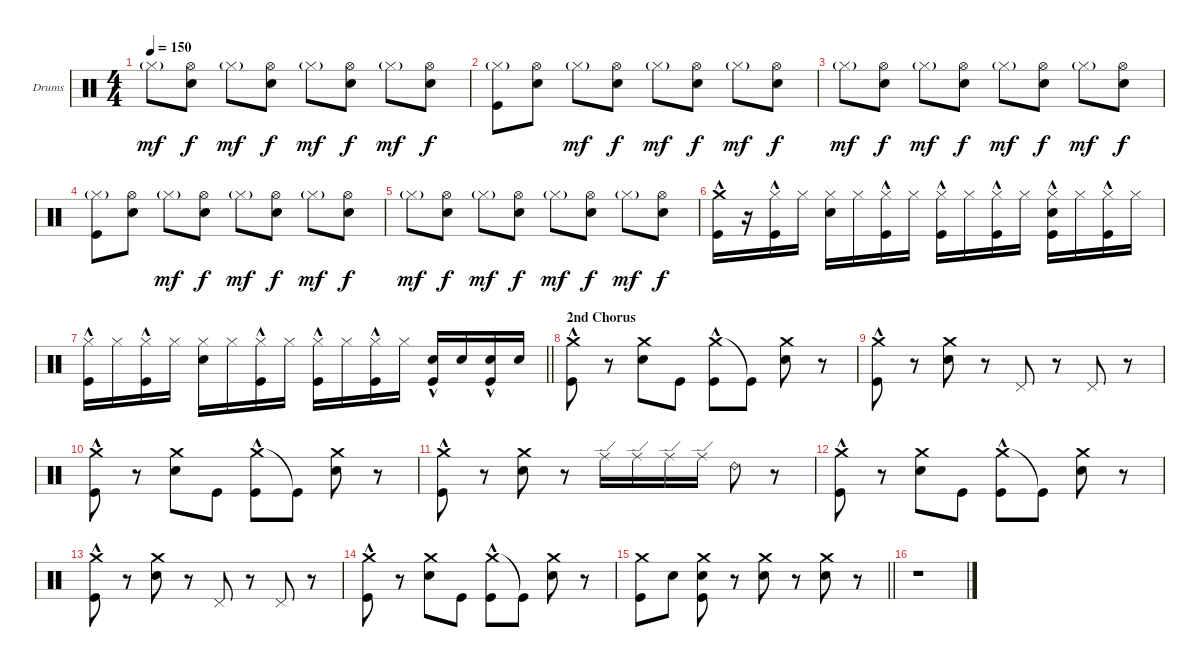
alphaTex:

\bracketExtendMode groupsimilarinstruments
\firstSystemTrackNameOrientation horizontal
\otherSystemsTrackNameOrientation horizontal
\track ("Drumkit" "Drums") {instrument percussion}
\staff {score}
\articulation defaults
\ts (4 4)
\tempo 150
\clef neutral
\ks c "Hi-Hat (closed)"{g}.8{dy mf}
("Hi-Hat (open)" "Snare (hit) 2").8{dy f} "Hi-Hat (closed)"{g}.8{dy mf} ("Hi-Hat (open)" "Snare (hit) 2").8{dy f} "Hi-Hat (closed)"{g}.8{dy mf} ("Hi-Hat (open)" "Snare (hit) 2").8{dy f} "Hi-Hat (closed)"{g}.8{dy mf} ("Hi-Hat (open)" "Snare (hit) 2").8{dy f} |
("Hi-Hat (closed)"{g} "Kick (hit)").8 ("Hi-Hat (open)" "Snare (hit) 2").8 "Hi-Hat (closed)"{g}.8{dy mf} ("Hi-Hat (open)" "Snare (hit) 2").8{dy f} "Hi-Hat (closed)"{g}.8{dy mf} ("Hi-Hat (open)" "Snare (hit) 2").8{dy f} "Hi-Hat (closed)"{g}.8{dy mf} ("Hi-Hat (open)" "Snare (hit) 2").8{dy f} |
"Hi-Hat (closed)"{g}.8{dy mf} ("Hi-Hat (open)" "Snare (hit) 2").8{dy f} "Hi-Hat (closed)"{g}.8{dy mf} ("Hi-Hat (open)" "Snare (hit) 2").8{dy f} "Hi-Hat (closed)"{g}.8{dy mf} ("Hi-Hat (open)" "Snare (hit) 2").8{dy f} "Hi-Hat (closed)"{g}.8{dy mf} ("Hi-Hat (open)" "Snare (hit) 2").8{dy f} |
("Hi-Hat (closed)"{g} "Kick (hit)").8 ("Hi-Hat (open)" "Snare (hit) 2").8 "Hi-Hat (closed)"{g}.8{dy mf} ("Hi-Hat (open)" "Snare (hit) 2").8{dy f} "Hi-Hat (closed)"{g}.8{dy mf} ("Hi-Hat (open)" "Snare (hit) 2").8{dy f} "Hi-Hat (closed)"{g}.8{dy mf} ("Hi-Hat (open)" "Snare (hit) 2").8{dy f} |
"Hi-Hat (closed)"{g}.8{dy mf} ("Hi-Hat (open)" "Snare (hit) 2").8{dy f} "Hi-Hat (closed)"{g}.8{dy mf} ("Hi-Hat (open)" "Snare (hit) 2").8{dy f} "Hi-Hat (closed)"{g}.8{dy mf} ("Hi-Hat (open)" "Snare (hit) 2").8{dy f} "Hi-Hat (closed)"{g}.8{dy mf} ("Hi-Hat (open)" "Snare (hit) 2").8{dy f} |
("Crash medium (hit)" "Kick (hit)"{hac}).16 r.16 ("Hi-Hat (closed)" "Kick (hit)"{hac}).16 "Hi-Hat (closed)".16 ("Hi-Hat (closed)" "Snare (hit) 2").16 "Hi-Hat (closed)".16 ("Hi-Hat (closed)" "Kick (hit)"{hac}).16 "Hi-Hat (closed)".16 ("Hi-Hat (closed)" "Kick (hit)"{hac}).16 "Hi-Hat (closed)".16 ("Hi-Hat (closed)" "Kick (hit)"{hac}).16 "Hi-Hat (closed)".16 ("Hi-Hat (closed)" "Snare (hit) 2" "Kick (hit)"{hac}).16 "Hi-Hat (closed)".16 ("Hi-Hat (closed)" "Kick (hit)"{hac}).16 "Hi-Hat (closed)".16 |
\barLineRight lightlight
("Hi-Hat (closed)" "Kick (hit)"{hac}).16 "Hi-Hat (closed)".16 ("Hi-Hat (closed)" "Kick (hit)"{hac}).16 "Hi-Hat (closed)".16 ("Hi-Hat (closed)" "Snare (hit) 2").16 "Hi-Hat (closed)".16 ("Hi-Hat (closed)" "Kick (hit)"{hac}).16 "Hi-Hat (closed)".16 ("Hi-Hat (closed)" "Kick (hit)"{hac}).16 "Hi-Hat (closed)".16 ("Hi-Hat (closed)" "Kick (hit)"{hac}).16 "Hi-Hat (closed)".16 ("Snare (hit) 2" "Kick (hit)"{hac}).16 "Snare (hit) 2".16 ("Snare (hit) 2" "Kick (hit)"{hac}).16 "Snare (hit) 2".16 |
\section ("" "2nd Chorus")
("Crash medium (hit)" "Kick (hit)"{hac}).8 r.8 ("Crash medium (hit)" "Snare (hit) 2").8 "Kick (hit)".8 ("Crash medium (hit)" "Kick (hit)"{hac}).8 "Kick (hit)"{t}.8 ("Crash medium (hit)" "Snare (hit) 2").8 r.8 |
("Crash medium (hit)" "Kick (hit)"{hac}).8 r.8 ("Crash medium (hit)" "Snare (hit) 2").8 r.8 "Pedal Hi-Hat (hit)".8 r.8 "Pedal Hi-Hat (hit)".8 r.8 |
("Crash medium (hit)" "Kick (hit)"{hac}).8 r.8 ("Crash medium (hit)" "Snare (hit) 2").8 "Kick (hit)".8 ("Crash medium (hit)" "Kick (hit)"{hac}).8 "Kick (hit)"{t}.8 ("Crash medium (hit)" "Snare (hit) 2").8 r.8 |
("Crash medium (hit)" "Kick (hit)"{hac}).8 r.8 ("Crash medium (hit)" "Snare (hit) 2").8 r.8 "Ride (edge)".16 "Ride (edge)".16 "Ride (edge)".16 "Ride (edge)".16 "Ride (bell) 2".8 r.8 |
("Crash medium (hit)" "Kick (hit)"{hac}).8 r.8 ("Crash medium (hit)" "Snare (hit) 2").8 "Kick (hit)".8 ("Crash medium (hit)" "Kick (hit)"{hac}).8 "Kick (hit)"{t}.8 ("Crash medium (hit)" "Snare (hit) 2").8 r.8 |
("Crash medium (hit)" "Kick (hit)"{hac}).8 r.8 ("Crash medium (hit)" "Snare (hit) 2").8 r.8 "Pedal Hi-Hat (hit)".8 r.8 "Pedal Hi-Hat (hit)".8 r.8 |
("Crash medium (hit)" "Kick (hit)"{hac}).8 r.8 ("Crash medium (hit)" "Snare (hit) 2").8 "Kick (hit)".8 ("Crash medium (hit)" "Kick (hit)"{hac}).8 "Kick (hit)"{t}.8 ("Crash medium (hit)" "Snare (hit) 2").8 r.8 |
\barLineRight lightlight
("Crash medium (hit)" "Kick (hit)").8 "Snare (hit) 2".8 ("Crash medium (hit)" "Snare (hit) 2" "Kick (hit)").8 r.8 ("Crash medium (hit)" "Snare (hit) 2").8 r.8 ("Crash medium (hit)" "Snare (hit) 2").8 r.8 |
r.1
